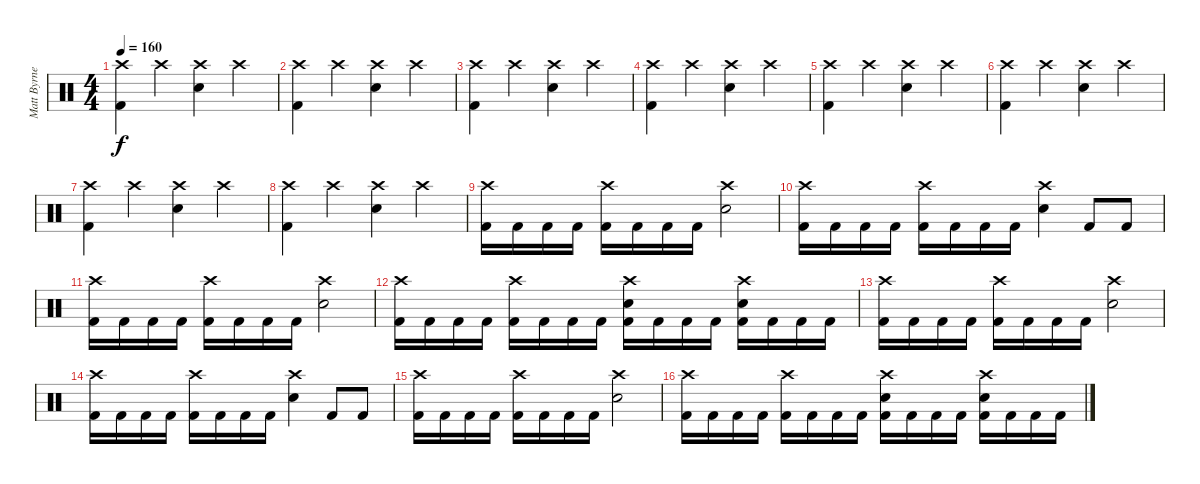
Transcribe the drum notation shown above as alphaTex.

\track ("Matt Byrne" "Matt Byrne") {instrument percussion}
\staff {score}
\articulation defaults
\ts (4 4)
\section ("" "")
\tempo 160
\clef neutral
\ks c
("Crash high (hit)" "Kick (hit) 2").4{dy f} "Crash high (hit)".4 ("Crash high (hit)" "Snare (hit) 2").4 "Crash high (hit)".4 |
("Crash high (hit)" "Kick (hit) 2").4 "Crash high (hit)".4 ("Crash high (hit)" "Snare (hit) 2").4 "Crash high (hit)".4 |
("Crash high (hit)" "Kick (hit) 2").4 "Crash high (hit)".4 ("Crash high (hit)" "Snare (hit) 2").4 "Crash high (hit)".4 |
("Crash high (hit)" "Kick (hit) 2").4 "Crash high (hit)".4 ("Crash high (hit)" "Snare (hit) 2").4 "Crash high (hit)".4 |
("Crash high (hit)" "Kick (hit) 2").4 "Crash high (hit)".4 ("Crash high (hit)" "Snare (hit) 2").4 "Crash high (hit)".4 |
("Crash high (hit)" "Kick (hit) 2").4 "Crash high (hit)".4 ("Crash high (hit)" "Snare (hit) 2").4 "Crash high (hit)".4 |
("Crash high (hit)" "Kick (hit) 2").4 "Crash high (hit)".4 ("Crash high (hit)" "Snare (hit) 2").4 "Crash high (hit)".4 |
("Crash high (hit)" "Kick (hit) 2").4 "Crash high (hit)".4 ("Crash high (hit)" "Snare (hit) 2").4 "Crash high (hit)".4 |
\section ("" "")
("Kick (hit) 2" "Crash high (hit)").16 "Kick (hit) 2".16 "Kick (hit) 2".16 "Kick (hit) 2".16 ("Kick (hit) 2" "Crash high (hit)").16 "Kick (hit) 2".16 "Kick (hit) 2".16 "Kick (hit) 2".16 ("Crash high (hit)" "Snare (hit) 2").2 |
("Kick (hit) 2" "Crash high (hit)").16 "Kick (hit) 2".16 "Kick (hit) 2".16 "Kick (hit) 2".16 ("Kick (hit) 2" "Crash high (hit)").16 "Kick (hit) 2".16 "Kick (hit) 2".16 "Kick (hit) 2".16 ("Crash high (hit)" "Snare (hit) 2").4 "Kick (hit) 2".8 "Kick (hit) 2".8 |
("Kick (hit) 2" "Crash high (hit)").16 "Kick (hit) 2".16 "Kick (hit) 2".16 "Kick (hit) 2".16 ("Kick (hit) 2" "Crash high (hit)").16 "Kick (hit) 2".16 "Kick (hit) 2".16 "Kick (hit) 2".16 ("Crash high (hit)" "Snare (hit) 2").2 |
("Kick (hit) 2" "Crash high (hit)").16 "Kick (hit) 2".16 "Kick (hit) 2".16 "Kick (hit) 2".16 ("Kick (hit) 2" "Crash high (hit)").16 "Kick (hit) 2".16 "Kick (hit) 2".16 "Kick (hit) 2".16 ("Kick (hit) 2" "Snare (hit) 2" "Crash high (hit)").16 "Kick (hit) 2".16 "Kick (hit) 2".16 "Kick (hit) 2".16 ("Kick (hit) 2" "Snare (hit) 2" "Crash high (hit)").16 "Kick (hit) 2".16 "Kick (hit) 2".16 "Kick (hit) 2".16 |
("Kick (hit) 2" "Crash high (hit)").16 "Kick (hit) 2".16 "Kick (hit) 2".16 "Kick (hit) 2".16 ("Kick (hit) 2" "Crash high (hit)").16 "Kick (hit) 2".16 "Kick (hit) 2".16 "Kick (hit) 2".16 ("Crash high (hit)" "Snare (hit) 2").2 |
("Kick (hit) 2" "Crash high (hit)").16 "Kick (hit) 2".16 "Kick (hit) 2".16 "Kick (hit) 2".16 ("Kick (hit) 2" "Crash high (hit)").16 "Kick (hit) 2".16 "Kick (hit) 2".16 "Kick (hit) 2".16 ("Crash high (hit)" "Snare (hit) 2").4 "Kick (hit) 2".8 "Kick (hit) 2".8 |
("Kick (hit) 2" "Crash high (hit)").16 "Kick (hit) 2".16 "Kick (hit) 2".16 "Kick (hit) 2".16 ("Kick (hit) 2" "Crash high (hit)").16 "Kick (hit) 2".16 "Kick (hit) 2".16 "Kick (hit) 2".16 ("Crash high (hit)" "Snare (hit) 2").2 |
("Kick (hit) 2" "Crash high (hit)").16 "Kick (hit) 2".16 "Kick (hit) 2".16 "Kick (hit) 2".16 ("Kick (hit) 2" "Crash high (hit)").16 "Kick (hit) 2".16 "Kick (hit) 2".16 "Kick (hit) 2".16 ("Kick (hit) 2" "Snare (hit) 2" "Crash high (hit)").16 "Kick (hit) 2".16 "Kick (hit) 2".16 "Kick (hit) 2".16 ("Kick (hit) 2" "Snare (hit) 2" "Crash high (hit)").16 "Kick (hit) 2".16 "Kick (hit) 2".16 "Kick (hit) 2".16
